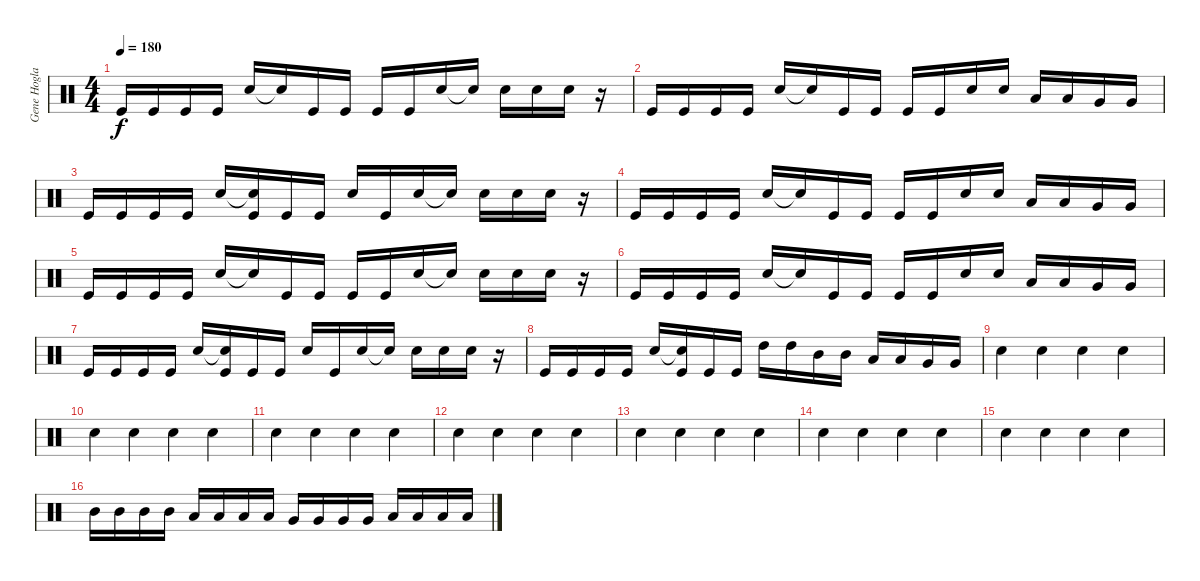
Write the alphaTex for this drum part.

\track ("Gene Hoglan" "Gene Hogla") {instrument percussion}
\staff {score}
\articulation defaults
\ts (4 4)
\tempo 180
\clef neutral
\ks c "Kick (hit)".16{dy f} "Kick (hit)".16 "Kick (hit)".16 "Kick (hit)".16 "Snare (hit) 2".16 "Snare (hit)"{t}.16 "Kick (hit)".16 "Kick (hit)".16 "Kick (hit)".16 "Kick (hit)".16 "Snare (hit) 2".16 "Snare (hit)"{t}.16 "Snare (hit) 2".16 "Snare (hit) 2".16 "Snare (hit) 2".16
r.16 |
"Kick (hit)".16 "Kick (hit)".16 "Kick (hit)".16 "Kick (hit)".16 "Snare (hit) 2".16 "Snare (hit)"{t}.16 "Kick (hit)".16 "Kick (hit)".16 "Kick (hit)".16 "Kick (hit)".16 "Snare (hit) 2".16 "Snare (hit) 2".16 "Low Tom (hit)".16 "Low Tom (hit)".16 "Very Low Tom (hit)".16 "Very Low Tom (hit)".16 |
"Kick (hit)".16 "Kick (hit)".16 "Kick (hit)".16 "Kick (hit)".16 "Snare (hit) 2".16 ("Snare (hit)"{t} "Kick (hit)").16 "Kick (hit)".16 "Kick (hit)".16 "Snare (hit) 2".16 "Kick (hit)".16 "Snare (hit) 2".16 "Snare (hit)"{t}.16 "Snare (hit) 2".16 "Snare (hit) 2".16 "Snare (hit) 2".16 r.16 |
"Kick (hit)".16 "Kick (hit)".16 "Kick (hit)".16 "Kick (hit)".16 "Snare (hit) 2".16 "Snare (hit)"{t}.16 "Kick (hit)".16 "Kick (hit)".16 "Kick (hit)".16 "Kick (hit)".16 "Snare (hit) 2".16 "Snare (hit) 2".16 "Low Tom (hit)".16 "Low Tom (hit)".16 "Very Low Tom (hit)".16 "Very Low Tom (hit)".16 |
"Kick (hit)".16 "Kick (hit)".16 "Kick (hit)".16 "Kick (hit)".16 "Snare (hit) 2".16 "Snare (hit)"{t}.16 "Kick (hit)".16 "Kick (hit)".16 "Kick (hit)".16 "Kick (hit)".16 "Snare (hit) 2".16 "Snare (hit)"{t}.16 "Snare (hit) 2".16 "Snare (hit) 2".16 "Snare (hit) 2".16 r.16 |
"Kick (hit)".16 "Kick (hit)".16 "Kick (hit)".16 "Kick (hit)".16 "Snare (hit) 2".16 "Snare (hit)"{t}.16 "Kick (hit)".16 "Kick (hit)".16 "Kick (hit)".16 "Kick (hit)".16 "Snare (hit) 2".16 "Snare (hit) 2".16 "Low Tom (hit)".16 "Low Tom (hit)".16 "Very Low Tom (hit)".16 "Very Low Tom (hit)".16 |
"Kick (hit)".16 "Kick (hit)".16 "Kick (hit)".16 "Kick (hit)".16 "Snare (hit) 2".16 ("Snare (hit)"{t} "Kick (hit)").16 "Kick (hit)".16 "Kick (hit)".16 "Snare (hit) 2".16 "Kick (hit)".16 "Snare (hit) 2".16 "Snare (hit)"{t}.16 "Snare (hit) 2".16 "Snare (hit) 2".16 "Snare (hit) 2".16 r.16 |
"Kick (hit)".16 "Kick (hit)".16 "Kick (hit)".16 "Kick (hit)".16 "Snare (hit) 2".16 ("Snare (hit)"{t} "Kick (hit)").16 "Kick (hit)".16 "Kick (hit)".16 "High Tom (hit)".16 "High Tom (hit)".16 "Mid Tom (hit)".16 "Mid Tom (hit)".16 "Low Tom (hit)".16 "Low Tom (hit)".16 "Very Low Tom (hit)".16 "Very Low Tom (hit)".16 |
"Snare (hit) 2".4 "Snare (hit) 2".4 "Snare (hit) 2".4 "Snare (hit) 2".4 |
"Snare (hit) 2".4 "Snare (hit) 2".4 "Snare (hit) 2".4 "Snare (hit) 2".4 |
"Snare (hit) 2".4 "Snare (hit) 2".4 "Snare (hit) 2".4 "Snare (hit) 2".4 |
"Snare (hit) 2".4 "Snare (hit) 2".4 "Snare (hit) 2".4 "Snare (hit) 2".4 |
"Snare (hit) 2".4 "Snare (hit) 2".4 "Snare (hit) 2".4 "Snare (hit) 2".4 |
"Snare (hit) 2".4 "Snare (hit) 2".4 "Snare (hit) 2".4 "Snare (hit) 2".4 |
"Snare (hit) 2".4 "Snare (hit) 2".4 "Snare (hit) 2".4 "Snare (hit) 2".4 |
"Mid Tom (hit)".16 "Mid Tom (hit)".16 "Mid Tom (hit)".16 "Mid Tom (hit)".16 "Low Tom (hit)".16 "Low Tom (hit)".16 "Low Tom (hit)".16 "Low Tom (hit)".16 "Very Low Tom (hit)".16 "Very Low Tom (hit)".16 "Very Low Tom (hit)".16 "Very Low Tom (hit)".16 "Low Floor Tom (hit)".16 "Low Floor Tom (hit)".16 "Low Floor Tom (hit)".16 "Low Floor Tom (hit)".16
